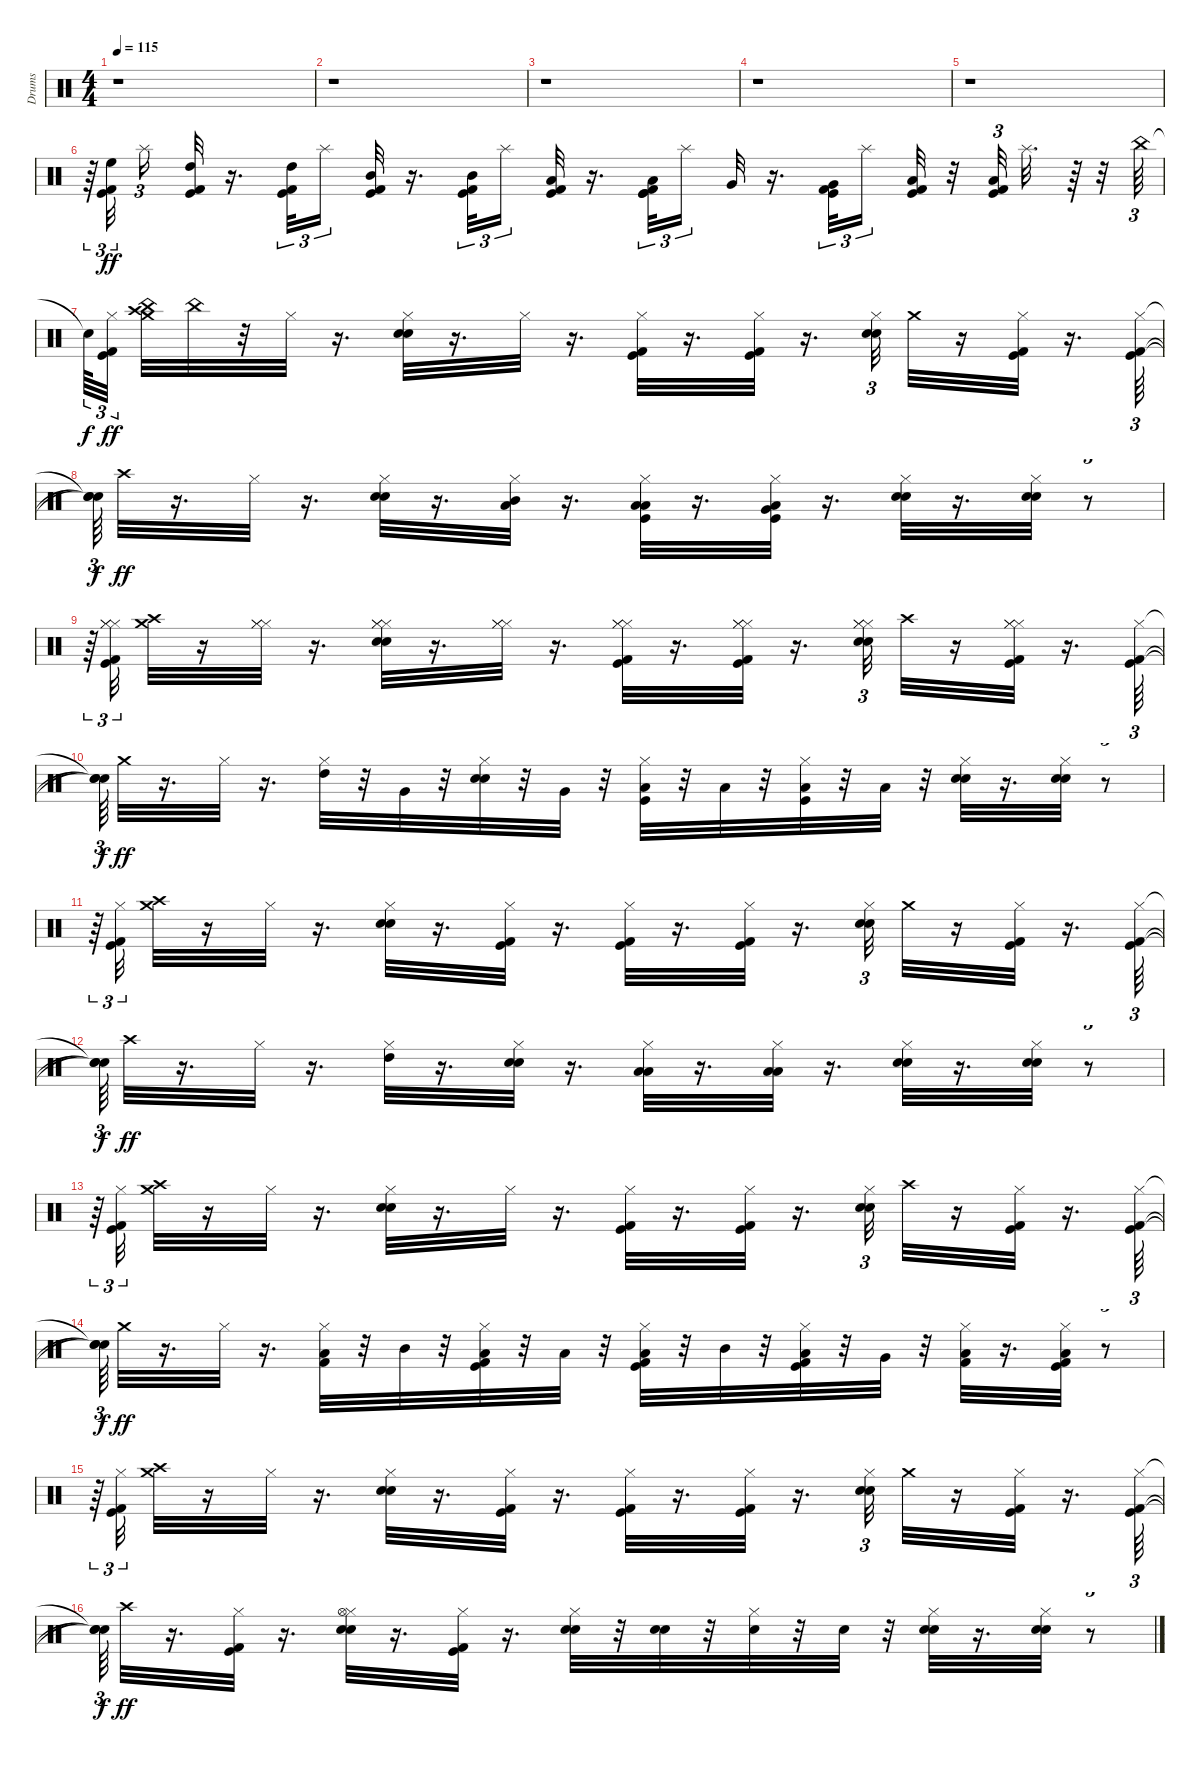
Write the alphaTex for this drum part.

\track ("Drums" "Drums") {instrument percussion}
\staff {score}
\articulation defaults
\ts (4 4)
\tempo 115
\clef neutral
\ks c
r.1{dy ff} |
r.1 |
r.1 |
r.1 |
r.1 |
r.64{tu (3 2)} ("High Floor Tom (hit)" "Kick (hit)" "Kick (hit) 2").32{tu (3 2)} "Splash (hit)".16{tu (3 2)} ("High Tom (hit)" "Kick (hit) 2" "Kick (hit)").32 r.16{d} ("High Tom (hit)" "Kick (hit) 2" "Kick (hit)").32{tu (3 2)} "Splash (hit)".16{tu (3 2)} ("Kick (hit)" "Mid Tom (hit)" "Kick (hit) 2").32 r.16{d} ("Mid Tom (hit)" "Kick (hit) 2" "Kick (hit)").32{tu (3 2)} "Splash (hit)".16{tu (3 2)} ("Low Tom (hit)" "Kick (hit) 2" "Kick (hit)").32 r.16{d} ("Low Tom (hit)" "Kick (hit)" "Kick (hit)" "Kick (hit) 2").32{tu (3 2)} "Splash (hit)".16{tu (3 2)} "Very Low Tom (hit)".32 r.16{d} ("Kick (hit)" "Very Low Tom (hit)" "Kick (hit) 2").32{tu (3 2)} "Splash (hit)".16{tu (3 2)} ("Kick (hit) 2" "Kick (hit)" "Low Floor Tom (hit)").32 r.32 ("Kick (hit) 2" "Kick (hit)" "Low Floor Tom (hit)").32{tu (3 2)} "Splash (hit)".32{d} r.64 r.32 "China (hit)".64{tu (3 2)} |
"Snare (hit)"{t}.64{tu (3 2) dy f} ("Hi-Hat (closed)" "Kick (hit) 2" "Kick (hit)").32{tu (3 2) dy ff} ("China (hit)" "Crash high (hit)" "Crash medium (hit)").32 "China (hit)".32 r.32 "Hi-Hat (closed)".32 r.16{d} ("Hi-Hat (closed)" "Snare (hit) 2" "Electric Snare (hit)").32 r.16{d} "Hi-Hat (closed)".32 r.16{d} ("Kick (hit)" "Kick (hit) 2" "Hi-Hat (closed)").32 r.16{d} ("Kick (hit) 2" "Kick (hit)" "Hi-Hat (closed)").32 r.16{d} ("Hi-Hat (closed)" "Snare (hit) 2" "Electric Snare (hit)").32{tu (3 2)} "Crash medium (hit)".32 r.16 ("Kick (hit) 2" "Hi-Hat (closed)" "Kick (hit)").32 r.16{d} ("Hi-Hat (closed)" "Kick (hit)" "Kick (hit) 2").64{tu (3 2)} |
("Snare (hit)"{t} "Snare (hit)"{t} "Snare (hit)"{t}).64{tu (3 2) dy f} "Crash high (hit)".32{dy ff} r.16{d} "Hi-Hat (closed)".32 r.16{d} ("Electric Snare (hit)" "Hi-Hat (closed)" "Snare (hit) 2").32 r.16{d} ("Mid Tom (hit)" "Low Floor Tom (hit)" "Hi-Hat (closed)").32 r.16{d} ("Hi-Hat (closed)" "Low Floor Tom (hit)" "Low Tom (hit)" "Kick (hit)").32 r.16{d} ("Low Floor Tom (hit)" "Kick (hit)" "Very Low Tom (hit)" "Hi-Hat (closed)").32 r.16{d} ("Electric Snare (hit)" "Snare (hit) 2" "Hi-Hat (closed)").32 r.16{d} ("Snare (hit) 2" "Electric Snare (hit)" "Hi-Hat (closed)").32 r.8{tu (3 2)} |
r.64{tu (3 2)} ("Hi-Hat (closed)" "Kick (hit)" "Hi-Hat (closed)" "Hi-Hat (closed)" "Kick (hit) 2").32{tu (3 2)} ("Crash medium (hit)" "Crash high (hit)").32 r.16 ("Hi-Hat (closed)" "Hi-Hat (closed)" "Hi-Hat (closed)").32 r.16{d} ("Electric Snare (hit)" "Hi-Hat (closed)" "Snare (hit) 2" "Hi-Hat (closed)" "Hi-Hat (closed)").32 r.16{d} ("Hi-Hat (closed)" "Hi-Hat (closed)" "Hi-Hat (closed)").32 r.16{d} ("Hi-Hat (closed)" "Hi-Hat (closed)" "Kick (hit) 2" "Hi-Hat (closed)" "Kick (hit)").32 r.16{d} ("Hi-Hat (closed)" "Kick (hit) 2" "Kick (hit)" "Hi-Hat (closed)" "Hi-Hat (closed)").32 r.16{d} ("Hi-Hat (closed)" "Electric Snare (hit)" "Hi-Hat (closed)" "Hi-Hat (closed)" "Snare (hit) 2").32{tu (3 2)} "Crash high (hit)".32 r.16 ("Hi-Hat (closed)" "Kick (hit)" "Hi-Hat (closed)" "Kick (hit) 2" "Hi-Hat (closed)").32 r.16{d} ("Kick (hit) 2" "Kick (hit)" "Hi-Hat (closed)").64{tu (3 2)} |
("Snare (hit)"{t} "Snare (hit)"{t} "Snare (hit)"{t}).64{tu (3 2) dy f} "Crash medium (hit)".32{dy ff} r.16{d} "Hi-Hat (closed)".32 r.16{d} ("Hi-Hat (closed)" "High Tom (hit)").32 r.32 "Very Low Tom (hit)".32 r.32 ("Electric Snare (hit)" "Snare (hit) 2" "Hi-Hat (closed)").32 r.32 "Very Low Tom (hit)".32 r.32 ("Hi-Hat (closed)" "Low Tom (hit)" "Kick (hit)").32 r.32 "Low Floor Tom (hit)".32 r.32 ("Kick (hit)" "Hi-Hat (closed)" "Low Tom (hit)").32 r.32 "Low Floor Tom (hit)".32 r.32 ("Snare (hit) 2" "Electric Snare (hit)" "Hi-Hat (closed)").32 r.16{d} ("Snare (hit) 2" "Hi-Hat (closed)" "Electric Snare (hit)").32 r.8{tu (3 2)} |
r.64{tu (3 2)} ("Kick (hit) 2" "Kick (hit)" "Hi-Hat (closed)").32{tu (3 2)} ("Crash medium (hit)" "Crash high (hit)").32 r.16 "Hi-Hat (closed)".32 r.16{d} ("Hi-Hat (closed)" "Electric Snare (hit)" "Snare (hit) 2").32 r.16{d} ("Hi-Hat (closed)" "Kick (hit)" "Kick (hit) 2").32 r.16{d} ("Hi-Hat (closed)" "Kick (hit) 2" "Kick (hit)").32 r.16{d} ("Kick (hit)" "Kick (hit) 2" "Hi-Hat (closed)").32 r.16{d} ("Hi-Hat (closed)" "Electric Snare (hit)" "Snare (hit) 2").32{tu (3 2)} "Crash medium (hit)".32 r.16 ("Hi-Hat (closed)" "Kick (hit) 2" "Kick (hit)").32 r.16{d} ("Hi-Hat (closed)" "Kick (hit)" "Kick (hit) 2").64{tu (3 2)} |
("Snare (hit)"{t} "Snare (hit)"{t} "Snare (hit)"{t}).64{tu (3 2) dy f} "Crash high (hit)".32{dy ff} r.16{d} "Hi-Hat (closed)".32 r.16{d} ("Hi-Hat (closed)" "High Tom (hit)").32 r.16{d} ("Hi-Hat (closed)" "Snare (hit) 2" "Electric Snare (hit)").32 r.16{d} ("Low Floor Tom (hit)" "Low Tom (hit)" "Hi-Hat (closed)").32 r.16{d} ("Low Floor Tom (hit)" "Hi-Hat (closed)" "Low Tom (hit)").32 r.16{d} ("Hi-Hat (closed)" "Electric Snare (hit)" "Snare (hit) 2").32 r.16{d} ("Snare (hit) 2" "Electric Snare (hit)" "Hi-Hat (closed)").32 r.8{tu (3 2)} |
r.64{tu (3 2)} ("Kick (hit) 2" "Hi-Hat (closed)" "Kick (hit)").32{tu (3 2)} ("Crash high (hit)" "Crash medium (hit)").32 r.16 "Hi-Hat (closed)".32 r.16{d} ("Hi-Hat (closed)" "Electric Snare (hit)" "Snare (hit) 2").32 r.16{d} "Hi-Hat (closed)".32 r.16{d} ("Kick (hit)" "Kick (hit) 2" "Hi-Hat (closed)").32 r.16{d} ("Kick (hit) 2" "Kick (hit)" "Hi-Hat (closed)").32 r.16{d} ("Hi-Hat (closed)" "Electric Snare (hit)" "Snare (hit) 2").32{tu (3 2)} "Crash high (hit)".32 r.16 ("Hi-Hat (closed)" "Kick (hit) 2" "Kick (hit)").32 r.16{d} ("Kick (hit) 2" "Hi-Hat (closed)" "Kick (hit)").64{tu (3 2)} |
("Snare (hit)"{t} "Snare (hit)"{t} "Snare (hit)"{t}).64{tu (3 2) dy f} "Crash medium (hit)".32{dy ff} r.16{d} "Hi-Hat (closed)".32 r.16{d} ("Low Floor Tom (hit)" "Hi-Hat (closed)" "Kick (hit) 2").32 r.32 "Mid Tom (hit)".32 r.32 ("Kick (hit) 2" "Kick (hit)" "Low Floor Tom (hit)" "Hi-Hat (closed)").32 r.32 "Low Tom (hit)".32 r.32 ("Low Floor Tom (hit)" "Kick (hit) 2" "Kick (hit)" "Hi-Hat (closed)").32 r.32 "Mid Tom (hit)".32 r.32 ("Kick (hit)" "Kick (hit) 2" "Low Floor Tom (hit)" "Hi-Hat (closed)").32 r.32 "Very Low Tom (hit)".32 r.32 ("Hi-Hat (closed)" "Low Floor Tom (hit)" "Kick (hit) 2").32 r.16{d} ("Low Floor Tom (hit)" "Kick (hit) 2" "Kick (hit)" "Hi-Hat (closed)").32 r.8{tu (3 2)} |
r.64{tu (3 2)} ("Hi-Hat (closed)" "Kick (hit)" "Kick (hit) 2").32{tu (3 2)} ("Crash high (hit)" "Crash medium (hit)").32 r.16 "Hi-Hat (closed)".32 r.16{d} ("Electric Snare (hit)" "Hi-Hat (closed)" "Snare (hit) 2").32 r.16{d} ("Hi-Hat (closed)" "Kick (hit) 2" "Kick (hit)").32 r.16{d} ("Hi-Hat (closed)" "Kick (hit)" "Kick (hit) 2").32 r.16{d} ("Hi-Hat (closed)" "Kick (hit)" "Kick (hit) 2").32 r.16{d} ("Hi-Hat (closed)" "Electric Snare (hit)" "Snare (hit) 2").32{tu (3 2)} "Crash medium (hit)".32 r.16 ("Hi-Hat (closed)" "Kick (hit)" "Kick (hit) 2").32 r.16{d} ("Kick (hit) 2" "Hi-Hat (closed)" "Kick (hit)").64{tu (3 2)} |
("Snare (hit)"{t} "Snare (hit)"{t} "Snare (hit)"{t}).64{tu (3 2) dy f} "Crash high (hit)".32{dy ff} r.16{d} ("Kick (hit) 2" "Hi-Hat (closed)" "Kick (hit)").32 r.16{d} ("Hi-Hat (closed)" "Hi-Hat (open)" "Snare (hit) 2" "Electric Snare (hit)").32 r.16{d} ("Kick (hit)" "Kick (hit) 2" "Hi-Hat (closed)").32 r.16{d} ("Hi-Hat (closed)" "Snare (hit) 2" "Electric Snare (hit)").32 r.32 ("Electric Snare (hit)" "Snare (hit) 2").32 r.32 ("Snare (hit) 2" "Hi-Hat (closed)").32 r.32 "Snare (hit) 2".32 r.32 ("Electric Snare (hit)" "Snare (hit) 2" "Hi-Hat (closed)").32 r.16{d} ("Hi-Hat (closed)" "Snare (hit) 2" "Electric Snare (hit)").32 r.8{tu (3 2)}
